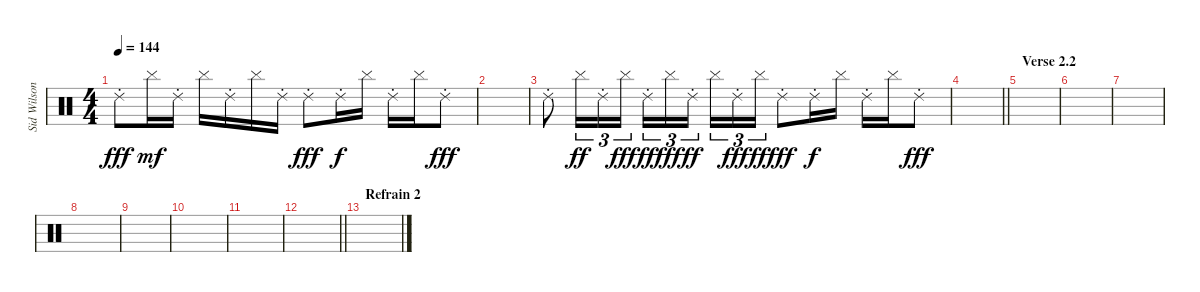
\track ("Sid Wilson" "Sid Wilson") {instrument percussion}
\staff {score}
\articulation defaults
\ts (4 4)
\tempo 144
\clef neutral
\ks c "Ride (choke) 2".8{dy fff} "Cymbal (hit)".16{dy mf} "Ride (choke) 2".16 "Cymbal (hit)".16 "Ride (choke) 2".16 "Cymbal (hit)".16 "Ride (choke) 2".16 "Ride (choke) 2".8{dy fff} "Ride (choke) 2".16{dy f} "Cymbal (hit)".16 "Ride (choke) 2".16 "Cymbal (hit)".16 "Ride (choke) 2".8{dy fff}
|
|
"Ride (choke) 2".8 "Cymbal (hit)".16{tu (3 2) dy ff} "Ride (choke) 2".16{tu (3 2)} "Cymbal (hit)".16{tu (3 2) dy fff} "Ride (choke) 2".16{tu (3 2) dy ff} "Cymbal (hit)".16{tu (3 2) dy fff} "Ride (choke) 2".16{tu (3 2) dy ff beam splitsecondary} "Cymbal (hit)".16{tu (3 2)} "Ride (choke) 2".16{tu (3 2) dy fff} "Cymbal (hit)".16{tu (3 2) dy ff} "Ride (choke) 2".8{dy fff} "Ride (choke) 2".16{dy f} "Cymbal (hit)".16 "Ride (choke) 2".16 "Cymbal (hit)".16 "Ride (choke) 2".8{dy fff} |
\barLineRight lightlight
|
\section ("" "Verse 2.2")
|
|
|
|
|
|
|
\barLineRight lightlight
|
\section ("" "Refrain 2")
